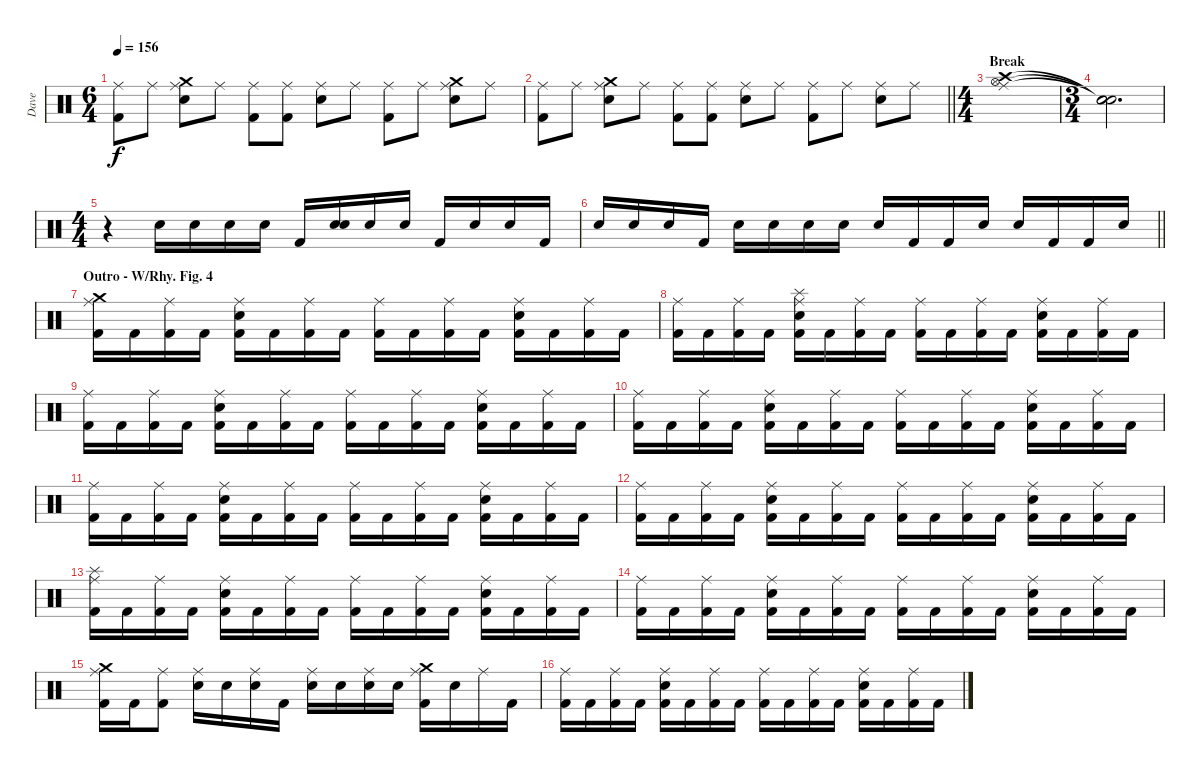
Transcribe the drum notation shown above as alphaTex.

\track ("Dave" "Dave") {instrument percussion}
\staff {score}
\articulation defaults
\ts (6 4)
\tempo 156
\clef neutral
\ks c
("Ride (middle)" "Kick (hit) 2").8{dy f} "Ride (middle)".8 ("Crash medium (hit)" "Electric Snare (hit)" "Ride (middle)").8 "Ride (middle)".8 ("Kick (hit) 2" "Ride (middle)").8 ("Kick (hit) 2" "Ride (middle)").8 ("Electric Snare (hit)" "Ride (middle)").8 "Ride (middle)".8 ("Kick (hit) 2" "Ride (middle)").8 "Ride (middle)".8 ("Electric Snare (hit)" "Ride (middle)" "Crash medium (hit)").8 "Ride (middle)".8 |
\barLineRight lightlight
("Ride (middle)" "Kick (hit) 2").8 "Ride (middle)".8 ("Crash medium (hit)" "Electric Snare (hit)" "Ride (middle)").8 "Ride (middle)".8 ("Kick (hit) 2" "Ride (middle)").8 ("Kick (hit) 2" "Ride (middle)").8 ("Electric Snare (hit)" "Ride (middle)").8 "Ride (middle)".8 ("Kick (hit) 2" "Ride (middle)").8 "Ride (middle)".8 ("Electric Snare (hit)" "Ride (middle)").8 "Ride (middle)".8 |
\ts (4 4)
\section ("" "Break")
("Ride (middle)" "Hi-Hat (open)" "Crash high (hit)").1 |
\ts (3 4)
("Snare (hit)"{t} "Snare (hit)"{t} "Snare (hit)"{t}).2{d} |
\ts (4 4)
r.4 "Electric Snare (hit)".16 "Electric Snare (hit)".16 "Electric Snare (hit)".16 "Electric Snare (hit)".16 "Kick (hit) 2".16 ("Electric Snare (hit)" "Electric Snare (hit)").16 "Electric Snare (hit)".16 "Electric Snare (hit)".16 "Kick (hit) 2".16 "Electric Snare (hit)".16 "Electric Snare (hit)".16 "Kick (hit) 2".16 |
\barLineRight lightlight "Electric Snare (hit)".16 "Electric Snare (hit)".16 "Electric Snare (hit)".16 "Kick (hit) 2".16 "Electric Snare (hit)".16 "Electric Snare (hit)".16 "Electric Snare (hit)".16 "Electric Snare (hit)".16 "Electric Snare (hit)".16 "Kick (hit) 2".16 "Kick (hit) 2".16 "Electric Snare (hit)".16 "Electric Snare (hit)".16 "Kick (hit) 2".16 "Kick (hit) 2".16 "Electric Snare (hit)".16
|
\section ("" "Outro - W/Rhy. Fig. 4")
("Ride (middle)" "Kick (hit) 2" "Crash medium (hit)").16 "Kick (hit) 2".16 ("Ride (middle)" "Kick (hit) 2").16 "Kick (hit) 2".16 ("Ride (middle)" "Electric Snare (hit)" "Kick (hit) 2").16 "Kick (hit) 2".16 ("Ride (middle)" "Kick (hit) 2").16 "Kick (hit) 2".16 ("Ride (middle)" "Kick (hit) 2").16 "Kick (hit) 2".16 ("Ride (middle)" "Kick (hit) 2").16 "Kick (hit) 2".16 ("Ride (middle)" "Electric Snare (hit)" "Kick (hit) 2").16 "Kick (hit) 2".16 ("Ride (middle)" "Kick (hit) 2").16 "Kick (hit) 2".16 |
("Ride (middle)" "Kick (hit) 2").16 "Kick (hit) 2".16 ("Ride (middle)" "Kick (hit) 2").16 "Kick (hit) 2".16 ("Ride (middle)" "Electric Snare (hit)" "Kick (hit) 2" "Splash (hit)").16 "Kick (hit) 2".16 ("Ride (middle)" "Kick (hit) 2").16 "Kick (hit) 2".16 ("Kick (hit) 2" "Ride (middle)").16 "Kick (hit) 2".16 ("Ride (middle)" "Kick (hit) 2").16 "Kick (hit) 2".16 ("Ride (middle)" "Electric Snare (hit)" "Kick (hit) 2").16 "Kick (hit) 2".16 ("Ride (middle)" "Kick (hit) 2").16 "Kick (hit) 2".16 |
("Kick (hit) 2" "Ride (middle)").16 "Kick (hit) 2".16 ("Ride (middle)" "Kick (hit) 2").16 "Kick (hit) 2".16 ("Ride (middle)" "Electric Snare (hit)" "Kick (hit) 2").16 "Kick (hit) 2".16 ("Ride (middle)" "Kick (hit) 2").16 "Kick (hit) 2".16 ("Ride (middle)" "Kick (hit) 2").16 "Kick (hit) 2".16 ("Ride (middle)" "Kick (hit) 2").16 "Kick (hit) 2".16 ("Ride (middle)" "Electric Snare (hit)" "Kick (hit) 2").16 "Kick (hit) 2".16 ("Ride (middle)" "Kick (hit) 2").16 "Kick (hit) 2".16 |
("Kick (hit) 2" "Ride (middle)").16 "Kick (hit) 2".16 ("Ride (middle)" "Kick (hit) 2").16 "Kick (hit) 2".16 ("Ride (middle)" "Electric Snare (hit)" "Kick (hit) 2").16 "Kick (hit) 2".16 ("Ride (middle)" "Kick (hit) 2").16 "Kick (hit) 2".16 ("Ride (middle)" "Kick (hit) 2").16 "Kick (hit) 2".16 ("Ride (middle)" "Kick (hit) 2").16 "Kick (hit) 2".16 ("Ride (middle)" "Electric Snare (hit)" "Kick (hit) 2").16 "Kick (hit) 2".16 ("Ride (middle)" "Kick (hit) 2").16 "Kick (hit) 2".16 |
("Kick (hit) 2" "Ride (middle)").16 "Kick (hit) 2".16 ("Ride (middle)" "Kick (hit) 2").16 "Kick (hit) 2".16 ("Ride (middle)" "Electric Snare (hit)" "Kick (hit) 2").16 "Kick (hit) 2".16 ("Ride (middle)" "Kick (hit) 2").16 "Kick (hit) 2".16 ("Ride (middle)" "Kick (hit) 2").16 "Kick (hit) 2".16 ("Ride (middle)" "Kick (hit) 2").16 "Kick (hit) 2".16 ("Ride (middle)" "Electric Snare (hit)" "Kick (hit) 2").16 "Kick (hit) 2".16 ("Ride (middle)" "Kick (hit) 2").16 "Kick (hit) 2".16 |
("Kick (hit) 2" "Ride (middle)").16 "Kick (hit) 2".16 ("Ride (middle)" "Kick (hit) 2").16 "Kick (hit) 2".16 ("Ride (middle)" "Electric Snare (hit)" "Kick (hit) 2").16 "Kick (hit) 2".16 ("Ride (middle)" "Kick (hit) 2").16 "Kick (hit) 2".16 ("Ride (middle)" "Kick (hit) 2").16 "Kick (hit) 2".16 ("Ride (middle)" "Kick (hit) 2").16 "Kick (hit) 2".16 ("Ride (middle)" "Electric Snare (hit)" "Kick (hit) 2").16 "Kick (hit) 2".16 ("Ride (middle)" "Kick (hit) 2").16 "Kick (hit) 2".16 |
("Kick (hit) 2" "Ride (middle)" "Splash (hit)").16 "Kick (hit) 2".16 ("Ride (middle)" "Kick (hit) 2").16 "Kick (hit) 2".16 ("Ride (middle)" "Electric Snare (hit)" "Kick (hit) 2").16 "Kick (hit) 2".16 ("Ride (middle)" "Kick (hit) 2").16 "Kick (hit) 2".16 ("Kick (hit) 2" "Ride (middle)").16 "Kick (hit) 2".16 ("Ride (middle)" "Kick (hit) 2").16 "Kick (hit) 2".16 ("Ride (middle)" "Electric Snare (hit)" "Kick (hit) 2").16 "Kick (hit) 2".16 ("Ride (middle)" "Kick (hit) 2").16 "Kick (hit) 2".16 |
("Kick (hit) 2" "Ride (middle)").16 "Kick (hit) 2".16 ("Ride (middle)" "Kick (hit) 2").16 "Kick (hit) 2".16 ("Ride (middle)" "Electric Snare (hit)" "Kick (hit) 2").16 "Kick (hit) 2".16 ("Ride (middle)" "Kick (hit) 2").16 "Kick (hit) 2".16 ("Ride (middle)" "Kick (hit) 2").16 "Kick (hit) 2".16 ("Ride (middle)" "Kick (hit) 2").16 "Kick (hit) 2".16 ("Ride (middle)" "Electric Snare (hit)" "Kick (hit) 2").16 "Kick (hit) 2".16 ("Ride (middle)" "Kick (hit) 2").16 "Kick (hit) 2".16 |
("Kick (hit) 2" "Ride (middle)" "Crash medium (hit)").16 "Kick (hit) 2".16 ("Ride (middle)" "Kick (hit) 2").8 ("Ride (middle)" "Electric Snare (hit)").16 "Electric Snare (hit)".16 ("Ride (middle)" "Electric Snare (hit)").16 "Kick (hit) 2".16 ("Ride (middle)" "Electric Snare (hit)").16 "Electric Snare (hit)".16 ("Ride (middle)" "Electric Snare (hit)").16 "Electric Snare (hit)".16 ("Ride (middle)" "Kick (hit) 2" "Crash medium (hit)").16 "Electric Snare (hit)".16 "Ride (middle)".16 "Kick (hit) 2".16 |
("Kick (hit) 2" "Ride (middle)").16 "Kick (hit) 2".16 ("Ride (middle)" "Kick (hit) 2").16 "Kick (hit) 2".16 ("Ride (middle)" "Electric Snare (hit)" "Kick (hit) 2").16 "Kick (hit) 2".16 ("Ride (middle)" "Kick (hit) 2").16 "Kick (hit) 2".16 ("Ride (middle)" "Kick (hit) 2").16 "Kick (hit) 2".16 ("Ride (middle)" "Kick (hit) 2").16 "Kick (hit) 2".16 ("Ride (middle)" "Electric Snare (hit)" "Kick (hit) 2").16 "Kick (hit) 2".16 ("Ride (middle)" "Kick (hit) 2").16 "Kick (hit) 2".16
